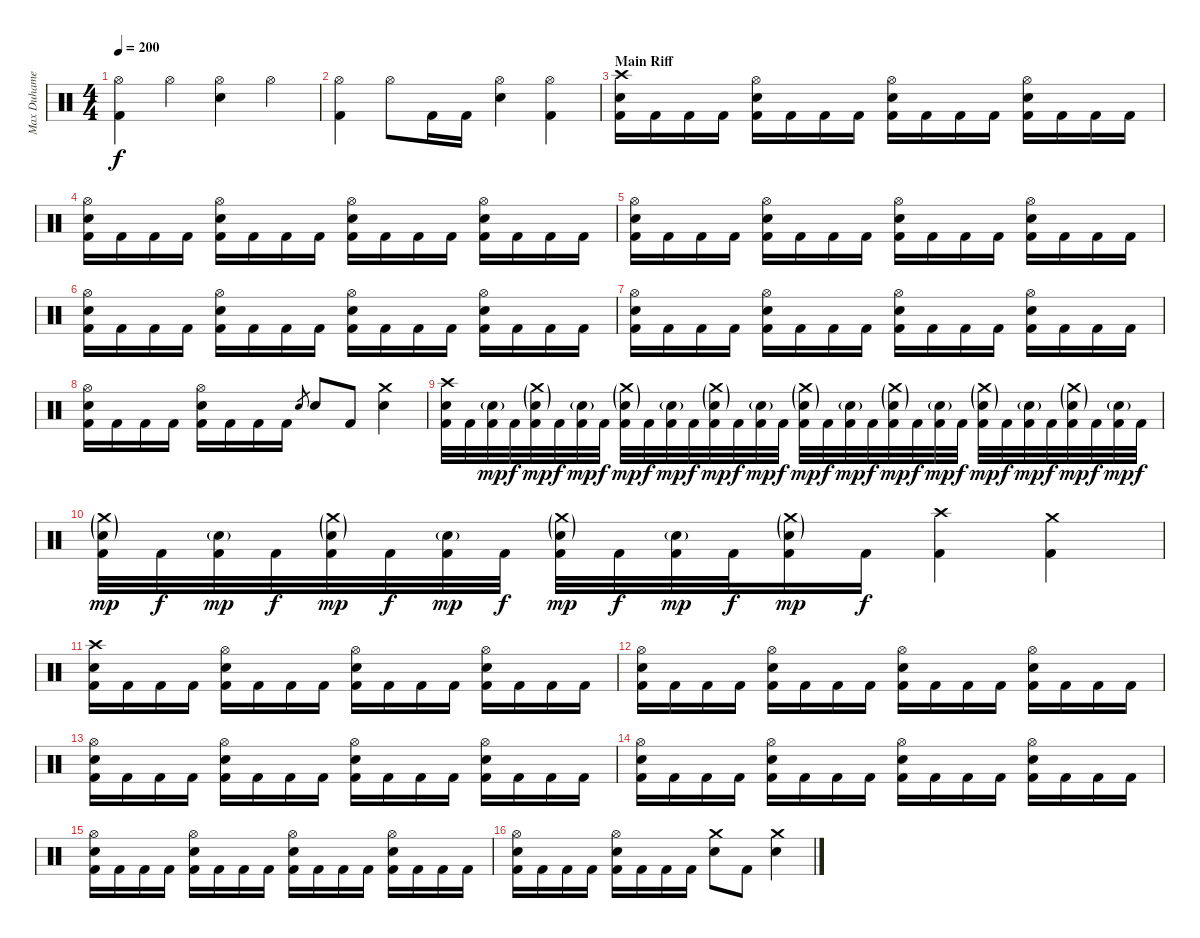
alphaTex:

\track ("Max Duhamel" "Max Duhame") {instrument percussion}
\staff {score}
\articulation defaults
\ts (4 4)
\tempo 200
\clef neutral
\ks c
("Hi-Hat (open)" "Kick (hit) 2").4{dy f} "Hi-Hat (open)".4 ("Hi-Hat (open)" "Electric Snare (hit)").4 "Hi-Hat (open)".4 |
("Hi-Hat (open)" "Kick (hit) 2").4 "Hi-Hat (open)".8 "Kick (hit) 2".16 "Kick (hit) 2".16 ("Hi-Hat (open)" "Electric Snare (hit)").4 ("Hi-Hat (open)" "Kick (hit) 2").4 |
\section ("" "Main Riff")
("Crash high (hit)" "Electric Snare (hit)" "Kick (hit) 2").16 "Kick (hit) 2".16 "Kick (hit) 2".16 "Kick (hit) 2".16 ("Hi-Hat (open)" "Electric Snare (hit)" "Kick (hit) 2").16 "Kick (hit) 2".16 "Kick (hit) 2".16 "Kick (hit) 2".16 ("Hi-Hat (open)" "Electric Snare (hit)" "Kick (hit) 2").16 "Kick (hit) 2".16 "Kick (hit) 2".16 "Kick (hit) 2".16 ("Hi-Hat (open)" "Electric Snare (hit)" "Kick (hit) 2").16 "Kick (hit) 2".16 "Kick (hit) 2".16 "Kick (hit) 2".16 |
("Hi-Hat (open)" "Electric Snare (hit)" "Kick (hit) 2").16 "Kick (hit) 2".16 "Kick (hit) 2".16 "Kick (hit) 2".16 ("Hi-Hat (open)" "Electric Snare (hit)" "Kick (hit) 2").16 "Kick (hit) 2".16 "Kick (hit) 2".16 "Kick (hit) 2".16 ("Hi-Hat (open)" "Electric Snare (hit)" "Kick (hit) 2").16 "Kick (hit) 2".16 "Kick (hit) 2".16 "Kick (hit) 2".16 ("Hi-Hat (open)" "Electric Snare (hit)" "Kick (hit) 2").16 "Kick (hit) 2".16 "Kick (hit) 2".16 "Kick (hit) 2".16 |
("Hi-Hat (open)" "Electric Snare (hit)" "Kick (hit) 2").16 "Kick (hit) 2".16 "Kick (hit) 2".16 "Kick (hit) 2".16 ("Hi-Hat (open)" "Electric Snare (hit)" "Kick (hit) 2").16 "Kick (hit) 2".16 "Kick (hit) 2".16 "Kick (hit) 2".16 ("Hi-Hat (open)" "Electric Snare (hit)" "Kick (hit) 2").16 "Kick (hit) 2".16 "Kick (hit) 2".16 "Kick (hit) 2".16 ("Hi-Hat (open)" "Electric Snare (hit)" "Kick (hit) 2").16 "Kick (hit) 2".16 "Kick (hit) 2".16 "Kick (hit) 2".16 |
("Hi-Hat (open)" "Electric Snare (hit)" "Kick (hit) 2").16 "Kick (hit) 2".16 "Kick (hit) 2".16 "Kick (hit) 2".16 ("Hi-Hat (open)" "Electric Snare (hit)" "Kick (hit) 2").16 "Kick (hit) 2".16 "Kick (hit) 2".16 "Kick (hit) 2".16 ("Hi-Hat (open)" "Electric Snare (hit)" "Kick (hit) 2").16 "Kick (hit) 2".16 "Kick (hit) 2".16 "Kick (hit) 2".16 ("Hi-Hat (open)" "Electric Snare (hit)" "Kick (hit) 2").16 "Kick (hit) 2".16 "Kick (hit) 2".16 "Kick (hit) 2".16 |
("Hi-Hat (open)" "Electric Snare (hit)" "Kick (hit) 2").16 "Kick (hit) 2".16 "Kick (hit) 2".16 "Kick (hit) 2".16 ("Hi-Hat (open)" "Electric Snare (hit)" "Kick (hit) 2").16 "Kick (hit) 2".16 "Kick (hit) 2".16 "Kick (hit) 2".16 ("Hi-Hat (open)" "Electric Snare (hit)" "Kick (hit) 2").16 "Kick (hit) 2".16 "Kick (hit) 2".16 "Kick (hit) 2".16 ("Hi-Hat (open)" "Electric Snare (hit)" "Kick (hit) 2").16 "Kick (hit) 2".16 "Kick (hit) 2".16 "Kick (hit) 2".16 |
("Hi-Hat (open)" "Electric Snare (hit)" "Kick (hit) 2").16 "Kick (hit) 2".16 "Kick (hit) 2".16 "Kick (hit) 2".16 ("Hi-Hat (open)" "Electric Snare (hit)" "Kick (hit) 2").16 "Kick (hit) 2".16 "Kick (hit) 2".16 "Kick (hit) 2".16 "Electric Snare (hit)".8{gr} "Electric Snare (hit)".8 "Kick (hit) 2".8 ("Crash medium (hit)" "Electric Snare (hit)").4 |
("Crash high (hit)" "Electric Snare (hit)" "Kick (hit) 2").32 "Kick (hit) 2".32 ("Electric Snare (hit)"{g} "Kick (hit) 2").32{dy mp} "Kick (hit) 2".32{dy f} ("Crash medium (hit)"{g} "Electric Snare (hit)"{g} "Kick (hit) 2").32{dy mp} "Kick (hit) 2".32{dy f} ("Electric Snare (hit)"{g} "Kick (hit) 2").32{dy mp} "Kick (hit) 2".32{dy f} ("Crash medium (hit)"{g} "Electric Snare (hit)"{g} "Kick (hit) 2").32{dy mp} "Kick (hit) 2".32{dy f} ("Electric Snare (hit)"{g} "Kick (hit) 2").32{dy mp} "Kick (hit) 2".32{dy f} ("Crash medium (hit)"{g} "Electric Snare (hit)"{g} "Kick (hit) 2").32{dy mp} "Kick (hit) 2".32{dy f} ("Electric Snare (hit)"{g} "Kick (hit) 2").32{dy mp} "Kick (hit) 2".32{dy f} ("Crash medium (hit)"{g} "Electric Snare (hit)"{g} "Kick (hit) 2").32{dy mp} "Kick (hit) 2".32{dy f} ("Electric Snare (hit)"{g} "Kick (hit) 2").32{dy mp} "Kick (hit) 2".32{dy f} ("Crash medium (hit)"{g} "Electric Snare (hit)"{g} "Kick (hit) 2").32{dy mp} "Kick (hit) 2".32{dy f} ("Electric Snare (hit)"{g} "Kick (hit) 2").32{dy mp} "Kick (hit) 2".32{dy f} ("Crash medium (hit)"{g} "Electric Snare (hit)"{g} "Kick (hit) 2").32{dy mp} "Kick (hit) 2".32{dy f} ("Electric Snare (hit)"{g} "Kick (hit) 2").32{dy mp} "Kick (hit) 2".32{dy f} ("Crash medium (hit)"{g} "Electric Snare (hit)"{g} "Kick (hit) 2").32{dy mp} "Kick (hit) 2".32{dy f} ("Electric Snare (hit)"{g} "Kick (hit) 2").32{dy mp} "Kick (hit) 2".32{dy f} |
("Crash medium (hit)"{g} "Electric Snare (hit)"{g} "Kick (hit) 2").32{dy mp} "Kick (hit) 2".32{dy f} ("Electric Snare (hit)"{g} "Kick (hit) 2").32{dy mp} "Kick (hit) 2".32{dy f} ("Crash medium (hit)"{g} "Electric Snare (hit)"{g} "Kick (hit) 2").32{dy mp} "Kick (hit) 2".32{dy f} ("Electric Snare (hit)"{g} "Kick (hit) 2").32{dy mp} "Kick (hit) 2".32{dy f} ("Crash medium (hit)"{g} "Electric Snare (hit)"{g} "Kick (hit) 2").32{dy mp} "Kick (hit) 2".32{dy f} ("Electric Snare (hit)"{g} "Kick (hit) 2").32{dy mp} "Kick (hit) 2".32{dy f} ("Crash medium (hit)"{g} "Electric Snare (hit)"{g} "Kick (hit) 2").16{dy mp} "Kick (hit) 2".16{dy f} ("Crash high (hit)" "Kick (hit) 2").4 ("Crash medium (hit)" "Kick (hit) 2").4 |
\section ("" "")
("Crash high (hit)" "Electric Snare (hit)" "Kick (hit) 2").16 "Kick (hit) 2".16 "Kick (hit) 2".16 "Kick (hit) 2".16 ("Hi-Hat (open)" "Electric Snare (hit)" "Kick (hit) 2").16 "Kick (hit) 2".16 "Kick (hit) 2".16 "Kick (hit) 2".16 ("Hi-Hat (open)" "Electric Snare (hit)" "Kick (hit) 2").16 "Kick (hit) 2".16 "Kick (hit) 2".16 "Kick (hit) 2".16 ("Hi-Hat (open)" "Electric Snare (hit)" "Kick (hit) 2").16 "Kick (hit) 2".16 "Kick (hit) 2".16 "Kick (hit) 2".16 |
("Hi-Hat (open)" "Electric Snare (hit)" "Kick (hit) 2").16 "Kick (hit) 2".16 "Kick (hit) 2".16 "Kick (hit) 2".16 ("Hi-Hat (open)" "Electric Snare (hit)" "Kick (hit) 2").16 "Kick (hit) 2".16 "Kick (hit) 2".16 "Kick (hit) 2".16 ("Hi-Hat (open)" "Electric Snare (hit)" "Kick (hit) 2").16 "Kick (hit) 2".16 "Kick (hit) 2".16 "Kick (hit) 2".16 ("Hi-Hat (open)" "Electric Snare (hit)" "Kick (hit) 2").16 "Kick (hit) 2".16 "Kick (hit) 2".16 "Kick (hit) 2".16 |
("Hi-Hat (open)" "Electric Snare (hit)" "Kick (hit) 2").16 "Kick (hit) 2".16 "Kick (hit) 2".16 "Kick (hit) 2".16 ("Hi-Hat (open)" "Electric Snare (hit)" "Kick (hit) 2").16 "Kick (hit) 2".16 "Kick (hit) 2".16 "Kick (hit) 2".16 ("Hi-Hat (open)" "Electric Snare (hit)" "Kick (hit) 2").16 "Kick (hit) 2".16 "Kick (hit) 2".16 "Kick (hit) 2".16 ("Hi-Hat (open)" "Electric Snare (hit)" "Kick (hit) 2").16 "Kick (hit) 2".16 "Kick (hit) 2".16 "Kick (hit) 2".16 |
("Hi-Hat (open)" "Electric Snare (hit)" "Kick (hit) 2").16 "Kick (hit) 2".16 "Kick (hit) 2".16 "Kick (hit) 2".16 ("Hi-Hat (open)" "Electric Snare (hit)" "Kick (hit) 2").16 "Kick (hit) 2".16 "Kick (hit) 2".16 "Kick (hit) 2".16 ("Hi-Hat (open)" "Electric Snare (hit)" "Kick (hit) 2").16 "Kick (hit) 2".16 "Kick (hit) 2".16 "Kick (hit) 2".16 ("Hi-Hat (open)" "Electric Snare (hit)" "Kick (hit) 2").16 "Kick (hit) 2".16 "Kick (hit) 2".16 "Kick (hit) 2".16 |
("Hi-Hat (open)" "Electric Snare (hit)" "Kick (hit) 2").16 "Kick (hit) 2".16 "Kick (hit) 2".16 "Kick (hit) 2".16 ("Hi-Hat (open)" "Electric Snare (hit)" "Kick (hit) 2").16 "Kick (hit) 2".16 "Kick (hit) 2".16 "Kick (hit) 2".16 ("Hi-Hat (open)" "Electric Snare (hit)" "Kick (hit) 2").16 "Kick (hit) 2".16 "Kick (hit) 2".16 "Kick (hit) 2".16 ("Hi-Hat (open)" "Electric Snare (hit)" "Kick (hit) 2").16 "Kick (hit) 2".16 "Kick (hit) 2".16 "Kick (hit) 2".16 |
("Hi-Hat (open)" "Electric Snare (hit)" "Kick (hit) 2").16 "Kick (hit) 2".16 "Kick (hit) 2".16 "Kick (hit) 2".16 ("Hi-Hat (open)" "Electric Snare (hit)" "Kick (hit) 2").16 "Kick (hit) 2".16 "Kick (hit) 2".16 "Kick (hit) 2".16 ("Crash medium (hit)" "Electric Snare (hit)").8 "Kick (hit) 2".8 ("Crash medium (hit)" "Electric Snare (hit)").4
